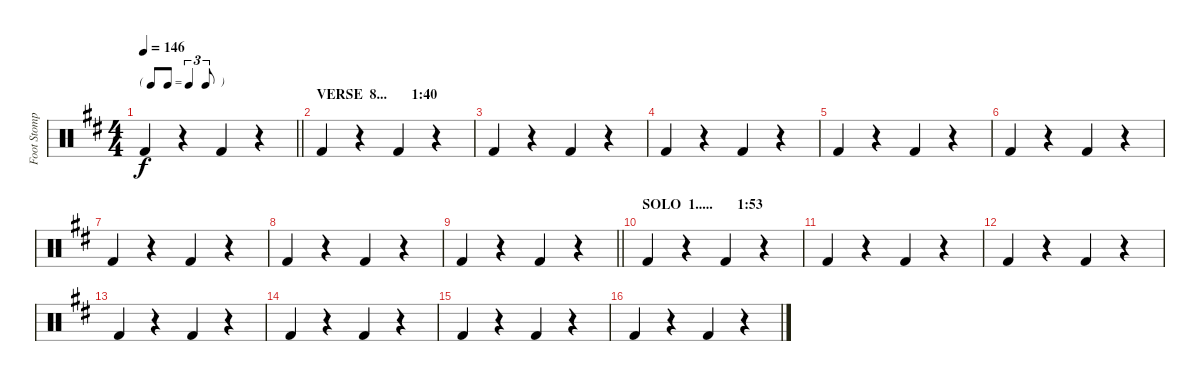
\track ("Foot Stomp" "Foot Stomp") {instrument percussion}
\staff {score}
\articulation defaults
\ts (4 4)
\tf triplet8th
\tempo 146
\clef neutral
\barLineRight lightlight
\ks d "Kick (hit) 2".4{dy f}
r.4 "Kick (hit) 2".4 r.4 |
\section ("" "VERSE  8...       1:40")
"Kick (hit) 2".4 r.4 "Kick (hit) 2".4 r.4 |
"Kick (hit) 2".4 r.4 "Kick (hit) 2".4 r.4 |
"Kick (hit) 2".4 r.4 "Kick (hit) 2".4 r.4 |
"Kick (hit) 2".4 r.4 "Kick (hit) 2".4 r.4 |
"Kick (hit) 2".4 r.4 "Kick (hit) 2".4 r.4 |
"Kick (hit) 2".4 r.4 "Kick (hit) 2".4 r.4 |
"Kick (hit) 2".4 r.4 "Kick (hit) 2".4 r.4 |
\barLineRight lightlight "Kick (hit) 2".4
r.4 "Kick (hit) 2".4 r.4 |
\section ("" "SOLO  1.....       1:53")
"Kick (hit) 2".4 r.4 "Kick (hit) 2".4 r.4 |
"Kick (hit) 2".4 r.4 "Kick (hit) 2".4 r.4 |
"Kick (hit) 2".4 r.4 "Kick (hit) 2".4 r.4 |
"Kick (hit) 2".4 r.4 "Kick (hit) 2".4 r.4 |
"Kick (hit) 2".4 r.4 "Kick (hit) 2".4 r.4 |
"Kick (hit) 2".4 r.4 "Kick (hit) 2".4 r.4 |
"Kick (hit) 2".4 r.4 "Kick (hit) 2".4 r.4
